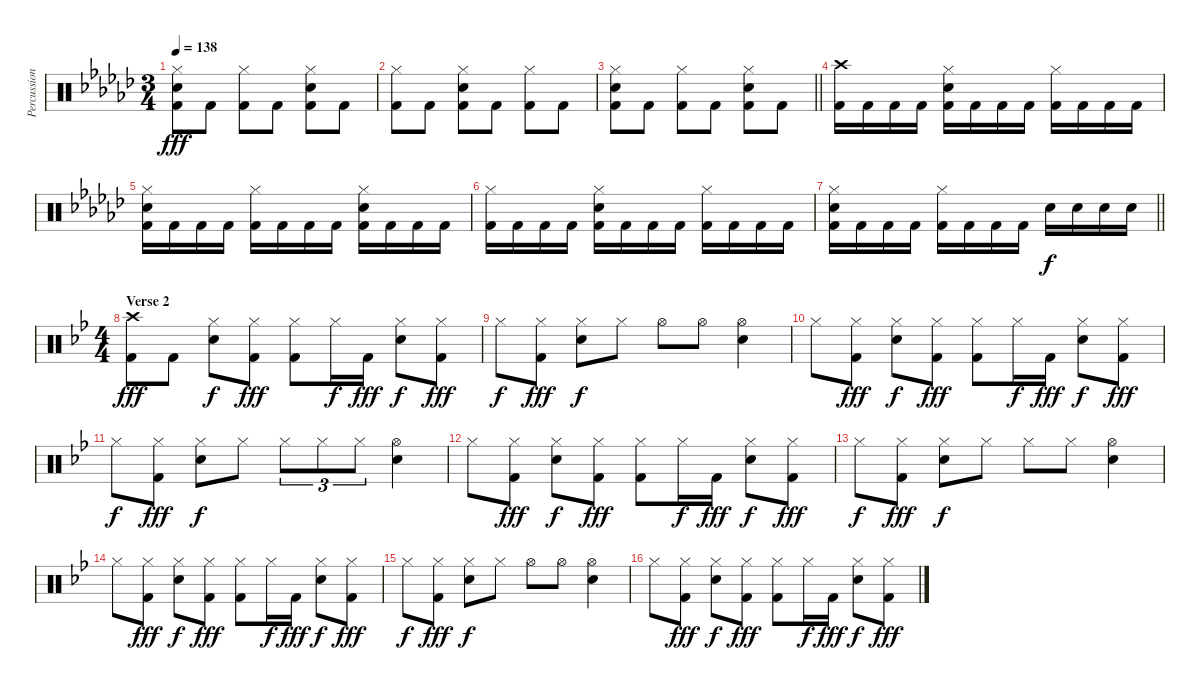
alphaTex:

\track ("Percussion" "Percussion") {instrument percussion}
\staff {score}
\articulation defaults
\ts (3 4)
\tempo 138
\clef neutral
\ks ebminor
("Hi-Hat (closed)" "Electric Snare (hit)" "Kick (hit) 2").8{dy fff} "Kick (hit) 2".8 ("Hi-Hat (closed)" "Kick (hit) 2").8 "Kick (hit) 2".8 ("Hi-Hat (closed)" "Electric Snare (hit)" "Kick (hit) 2").8 "Kick (hit) 2".8 |
("Hi-Hat (closed)" "Kick (hit) 2").8 "Kick (hit) 2".8 ("Hi-Hat (closed)" "Electric Snare (hit)" "Kick (hit) 2").8 "Kick (hit) 2".8 ("Hi-Hat (closed)" "Kick (hit) 2").8 "Kick (hit) 2".8 |
\barLineRight lightlight
("Hi-Hat (closed)" "Electric Snare (hit)" "Kick (hit) 2").8 "Kick (hit) 2".8 ("Hi-Hat (closed)" "Kick (hit) 2").8 "Kick (hit) 2".8 ("Hi-Hat (closed)" "Electric Snare (hit)" "Kick (hit) 2").8 "Kick (hit) 2".8 |
("Crash high (hit)" "Kick (hit) 2").16 "Kick (hit) 2".16 "Kick (hit) 2".16 "Kick (hit) 2".16 ("Hi-Hat (closed)" "Electric Snare (hit)" "Kick (hit) 2").16 "Kick (hit) 2".16 "Kick (hit) 2".16 "Kick (hit) 2".16 ("Hi-Hat (closed)" "Kick (hit) 2").16 "Kick (hit) 2".16 "Kick (hit) 2".16 "Kick (hit) 2".16 |
("Hi-Hat (closed)" "Electric Snare (hit)" "Kick (hit) 2").16 "Kick (hit) 2".16 "Kick (hit) 2".16 "Kick (hit) 2".16 ("Hi-Hat (closed)" "Kick (hit) 2").16 "Kick (hit) 2".16 "Kick (hit) 2".16 "Kick (hit) 2".16 ("Hi-Hat (closed)" "Electric Snare (hit)" "Kick (hit) 2").16 "Kick (hit) 2".16 "Kick (hit) 2".16 "Kick (hit) 2".16 |
("Hi-Hat (closed)" "Kick (hit) 2").16 "Kick (hit) 2".16 "Kick (hit) 2".16 "Kick (hit) 2".16 ("Hi-Hat (closed)" "Electric Snare (hit)" "Kick (hit) 2").16 "Kick (hit) 2".16 "Kick (hit) 2".16 "Kick (hit) 2".16 ("Hi-Hat (closed)" "Kick (hit) 2").16 "Kick (hit) 2".16 "Kick (hit) 2".16 "Kick (hit) 2".16 |
\barLineRight lightlight
("Hi-Hat (closed)" "Electric Snare (hit)" "Kick (hit) 2").16 "Kick (hit) 2".16 "Kick (hit) 2".16 "Kick (hit) 2".16 ("Hi-Hat (closed)" "Kick (hit) 2").16 "Kick (hit) 2".16 "Kick (hit) 2".16 "Kick (hit) 2".16 "Electric Snare (hit)".16{dy f} "Electric Snare (hit)".16 "Electric Snare (hit)".16 "Electric Snare (hit)".16 |
\ts (4 4)
\section ("" "Verse 2")
\ks gminor
("Crash high (hit)" "Kick (hit) 2").8{dy fff} "Kick (hit) 2".8 ("Hi-Hat (closed)" "Electric Snare (hit)").8{dy f} ("Hi-Hat (closed)" "Kick (hit) 2").8{dy fff} ("Hi-Hat (closed)" "Kick (hit) 2").8 "Hi-Hat (closed)".16{dy f} "Kick (hit) 2".16{dy fff} ("Hi-Hat (closed)" "Electric Snare (hit)").8{dy f} ("Hi-Hat (closed)" "Kick (hit) 2").8{dy fff} |
"Hi-Hat (closed)".8{dy f} ("Hi-Hat (closed)" "Kick (hit) 2").8{dy fff} ("Hi-Hat (closed)" "Electric Snare (hit)").8{dy f} "Hi-Hat (closed)".8 "Hi-Hat (open)".8 "Hi-Hat (open)".8 ("Hi-Hat (open)" "Electric Snare (hit)").4 |
"Hi-Hat (closed)".8 ("Hi-Hat (closed)" "Kick (hit) 2").8{dy fff} ("Hi-Hat (closed)" "Electric Snare (hit)").8{dy f} ("Hi-Hat (closed)" "Kick (hit) 2").8{dy fff} ("Hi-Hat (closed)" "Kick (hit) 2").8 "Hi-Hat (closed)".16{dy f} "Kick (hit) 2".16{dy fff} ("Hi-Hat (closed)" "Electric Snare (hit)").8{dy f} ("Hi-Hat (closed)" "Kick (hit) 2").8{dy fff} |
"Hi-Hat (closed)".8{dy f} ("Hi-Hat (closed)" "Kick (hit) 2").8{dy fff} ("Hi-Hat (closed)" "Electric Snare (hit)").8{dy f} "Hi-Hat (closed)".8 "Hi-Hat (closed)".8{tu (3 2)} "Hi-Hat (closed)".8{tu (3 2)} "Hi-Hat (closed)".8{tu (3 2)} ("Hi-Hat (open)" "Electric Snare (hit)").4 |
"Hi-Hat (closed)".8 ("Hi-Hat (closed)" "Kick (hit) 2").8{dy fff} ("Hi-Hat (closed)" "Electric Snare (hit)").8{dy f} ("Hi-Hat (closed)" "Kick (hit) 2").8{dy fff} ("Hi-Hat (closed)" "Kick (hit) 2").8 "Hi-Hat (closed)".16{dy f} "Kick (hit) 2".16{dy fff} ("Hi-Hat (closed)" "Electric Snare (hit)").8{dy f} ("Hi-Hat (closed)" "Kick (hit) 2").8{dy fff} |
"Hi-Hat (closed)".8{dy f} ("Hi-Hat (closed)" "Kick (hit) 2").8{dy fff} ("Hi-Hat (closed)" "Electric Snare (hit)").8{dy f} "Hi-Hat (closed)".8 "Hi-Hat (closed)".8 "Hi-Hat (closed)".8 ("Hi-Hat (open)" "Electric Snare (hit)").4 |
"Hi-Hat (closed)".8 ("Hi-Hat (closed)" "Kick (hit) 2").8{dy fff} ("Hi-Hat (closed)" "Electric Snare (hit)").8{dy f} ("Hi-Hat (closed)" "Kick (hit) 2").8{dy fff} ("Hi-Hat (closed)" "Kick (hit) 2").8 "Hi-Hat (closed)".16{dy f} "Kick (hit) 2".16{dy fff} ("Hi-Hat (closed)" "Electric Snare (hit)").8{dy f} ("Hi-Hat (closed)" "Kick (hit) 2").8{dy fff} |
"Hi-Hat (closed)".8{dy f} ("Hi-Hat (closed)" "Kick (hit) 2").8{dy fff} ("Hi-Hat (closed)" "Electric Snare (hit)").8{dy f} "Hi-Hat (closed)".8 "Hi-Hat (open)".8 "Hi-Hat (open)".8 ("Hi-Hat (open)" "Electric Snare (hit)").4 |
"Hi-Hat (closed)".8 ("Hi-Hat (closed)" "Kick (hit) 2").8{dy fff} ("Hi-Hat (closed)" "Electric Snare (hit)").8{dy f} ("Hi-Hat (closed)" "Kick (hit) 2").8{dy fff} ("Hi-Hat (closed)" "Kick (hit) 2").8 "Hi-Hat (closed)".16{dy f} "Kick (hit) 2".16{dy fff} ("Hi-Hat (closed)" "Electric Snare (hit)").8{dy f} ("Hi-Hat (closed)" "Kick (hit) 2").8{dy fff}
